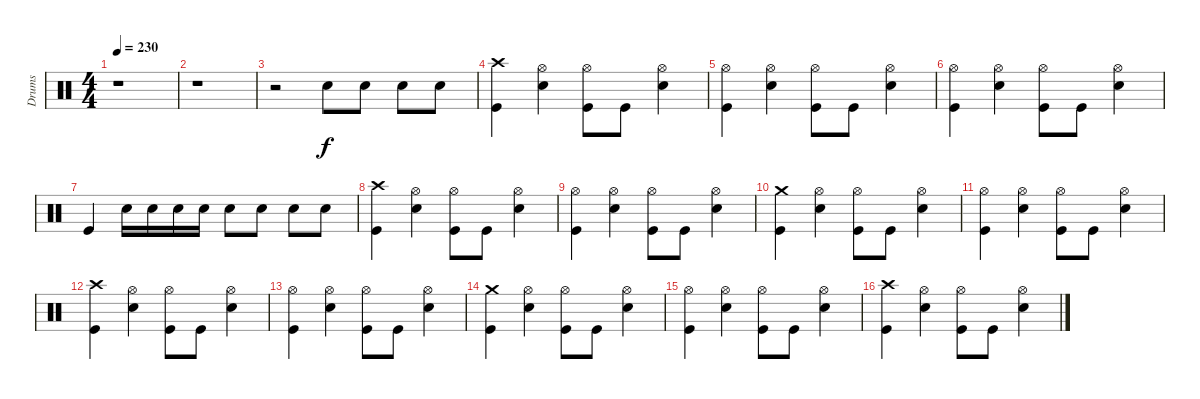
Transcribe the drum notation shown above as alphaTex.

\track ("Drums" "Drums") {instrument percussion}
\staff {score}
\articulation defaults
\ts (4 4)
\tempo 230
\clef neutral
\ks c
r.1{dy f} |
r.1 |
r.2 "Snare (hit) 2".8 "Snare (hit) 2".8 "Snare (hit) 2".8 "Snare (hit) 2".8 |
("Crash high (hit)" "Kick (hit)").4 ("Hi-Hat (open)" "Snare (hit) 2").4 ("Hi-Hat (open)" "Kick (hit)").8 "Kick (hit)".8 ("Hi-Hat (open)" "Snare (hit) 2").4 |
("Hi-Hat (open)" "Kick (hit)").4 ("Hi-Hat (open)" "Snare (hit) 2").4 ("Hi-Hat (open)" "Kick (hit)").8 "Kick (hit)".8 ("Hi-Hat (open)" "Snare (hit) 2").4 |
("Hi-Hat (open)" "Kick (hit)").4 ("Hi-Hat (open)" "Snare (hit) 2").4 ("Hi-Hat (open)" "Kick (hit)").8 "Kick (hit)".8 ("Hi-Hat (open)" "Snare (hit) 2").4 |
"Kick (hit)".4 "Snare (hit) 2".16 "Snare (hit) 2".16 "Snare (hit) 2".16 "Snare (hit) 2".16 "Snare (hit) 2".8 "Snare (hit) 2".8 "Snare (hit) 2".8 "Snare (hit) 2".8 |
("Crash high (hit)" "Kick (hit)").4 ("Hi-Hat (open)" "Snare (hit) 2").4 ("Hi-Hat (open)" "Kick (hit)").8 "Kick (hit)".8 ("Hi-Hat (open)" "Snare (hit) 2").4 |
("Hi-Hat (open)" "Kick (hit)").4 ("Hi-Hat (open)" "Snare (hit) 2").4 ("Hi-Hat (open)" "Kick (hit)").8 "Kick (hit)".8 ("Hi-Hat (open)" "Snare (hit) 2").4 |
("Crash medium (hit)" "Kick (hit)").4 ("Hi-Hat (open)" "Snare (hit) 2").4 ("Hi-Hat (open)" "Kick (hit)").8 "Kick (hit)".8 ("Hi-Hat (open)" "Snare (hit) 2").4 |
("Hi-Hat (open)" "Kick (hit)").4 ("Hi-Hat (open)" "Snare (hit) 2").4 ("Hi-Hat (open)" "Kick (hit)").8 "Kick (hit)".8 ("Hi-Hat (open)" "Snare (hit) 2").4 |
("Crash high (hit)" "Kick (hit)").4 ("Hi-Hat (open)" "Snare (hit) 2").4 ("Hi-Hat (open)" "Kick (hit)").8 "Kick (hit)".8 ("Hi-Hat (open)" "Snare (hit) 2").4 |
("Hi-Hat (open)" "Kick (hit)").4 ("Hi-Hat (open)" "Snare (hit) 2").4 ("Hi-Hat (open)" "Kick (hit)").8 "Kick (hit)".8 ("Hi-Hat (open)" "Snare (hit) 2").4 |
("Crash medium (hit)" "Kick (hit)").4 ("Hi-Hat (open)" "Snare (hit) 2").4 ("Hi-Hat (open)" "Kick (hit)").8 "Kick (hit)".8 ("Hi-Hat (open)" "Snare (hit) 2").4 |
("Hi-Hat (open)" "Kick (hit)").4 ("Hi-Hat (open)" "Snare (hit) 2").4 ("Hi-Hat (open)" "Kick (hit)").8 "Kick (hit)".8 ("Hi-Hat (open)" "Snare (hit) 2").4 |
("Crash high (hit)" "Kick (hit)").4 ("Hi-Hat (open)" "Snare (hit) 2").4 ("Hi-Hat (open)" "Kick (hit)").8 "Kick (hit)".8 ("Hi-Hat (open)" "Snare (hit) 2").4
